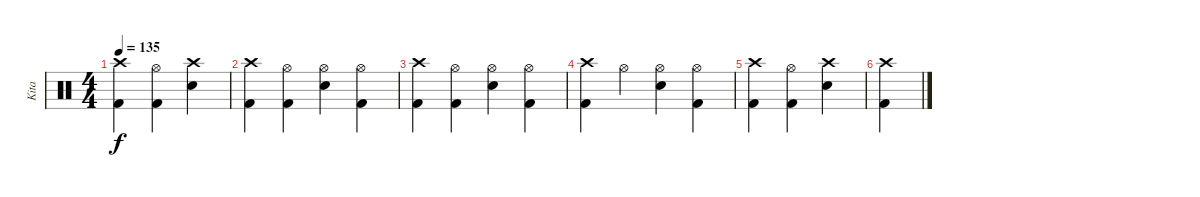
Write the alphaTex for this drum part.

\track ("Kita" "Kita") {instrument percussion}
\staff {score}
\articulation defaults
\ts (4 4)
\tempo 135
\clef neutral
\ks c
("Kick (hit) 2" "Crash high (hit)").4{dy f} ("Kick (hit) 2" "Hi-Hat (open)").4 ("Crash high (hit)" "Snare (hit) 2").4 |
("Kick (hit) 2" "Crash high (hit)").4 ("Kick (hit) 2" "Hi-Hat (open)").4 ("Snare (hit) 2" "Hi-Hat (open)").4 ("Kick (hit) 2" "Hi-Hat (open)").4 |
("Kick (hit) 2" "Crash high (hit)").4 ("Kick (hit) 2" "Hi-Hat (open)").4 ("Snare (hit) 2" "Hi-Hat (open)").4 ("Kick (hit) 2" "Hi-Hat (open)").4 |
("Kick (hit) 2" "Crash high (hit)").4 "Hi-Hat (open)".4 ("Snare (hit) 2" "Hi-Hat (open)").4 ("Kick (hit) 2" "Hi-Hat (open)").4 |
("Kick (hit) 2" "Crash high (hit)").4 ("Kick (hit) 2" "Hi-Hat (open)").4 ("Crash high (hit)" "Snare (hit) 2").4 |
("Crash high (hit)" "Kick (hit) 2").4
